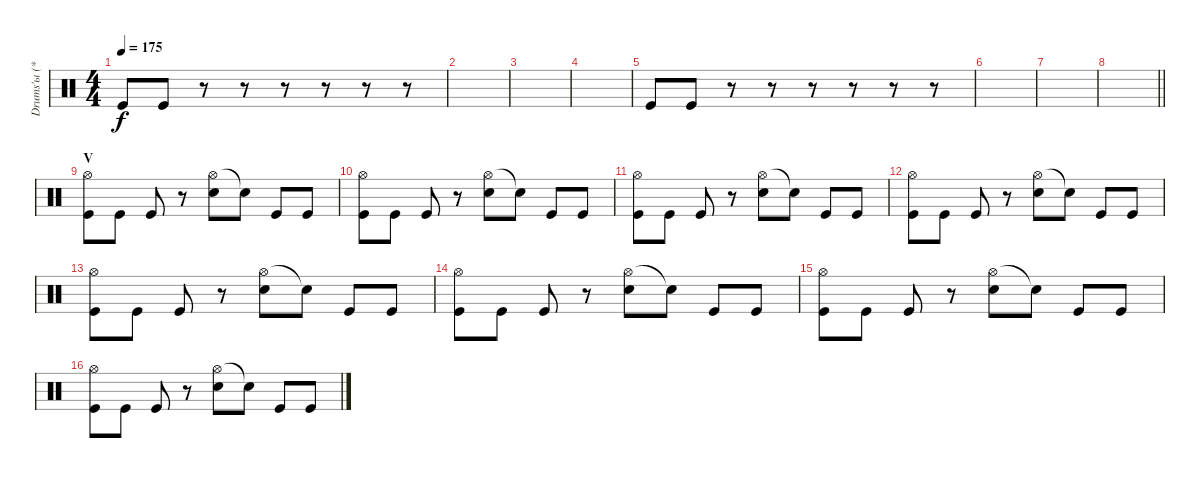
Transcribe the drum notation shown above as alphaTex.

\track ("Drums'ы (***)" "Drums'ы (*") {instrument percussion}
\staff {score}
\articulation defaults
\ts (4 4)
\tempo 175
\clef neutral
\ks c "Kick (hit)".8{dy f} "Kick (hit)".8
r.8 r.8 r.8 r.8 r.8 r.8 |
|
|
|
"Kick (hit)".8 "Kick (hit)".8 r.8 r.8 r.8 r.8 r.8 r.8 |
|
|
\barLineRight lightlight
|
\section ("" "V")
("Hi-Hat (open)" "Kick (hit)").8 "Kick (hit)".8 "Kick (hit)".8 r.8 ("Hi-Hat (open)" "Electric Snare (hit)").8 "Snare (hit)"{t}.8 "Kick (hit)".8 "Kick (hit)".8 |
("Hi-Hat (open)" "Kick (hit)").8 "Kick (hit)".8 "Kick (hit)".8 r.8 ("Hi-Hat (open)" "Electric Snare (hit)").8 "Snare (hit)"{t}.8 "Kick (hit)".8 "Kick (hit)".8 |
("Hi-Hat (open)" "Kick (hit)").8 "Kick (hit)".8 "Kick (hit)".8 r.8 ("Hi-Hat (open)" "Electric Snare (hit)").8 "Snare (hit)"{t}.8 "Kick (hit)".8 "Kick (hit)".8 |
("Hi-Hat (open)" "Kick (hit)").8 "Kick (hit)".8 "Kick (hit)".8 r.8 ("Hi-Hat (open)" "Electric Snare (hit)").8 "Snare (hit)"{t}.8 "Kick (hit)".8 "Kick (hit)".8 |
("Hi-Hat (open)" "Kick (hit)").8 "Kick (hit)".8 "Kick (hit)".8 r.8 ("Hi-Hat (open)" "Electric Snare (hit)").8 "Snare (hit)"{t}.8 "Kick (hit)".8 "Kick (hit)".8 |
("Hi-Hat (open)" "Kick (hit)").8 "Kick (hit)".8 "Kick (hit)".8 r.8 ("Hi-Hat (open)" "Electric Snare (hit)").8 "Snare (hit)"{t}.8 "Kick (hit)".8 "Kick (hit)".8 |
("Hi-Hat (open)" "Kick (hit)").8 "Kick (hit)".8 "Kick (hit)".8 r.8 ("Hi-Hat (open)" "Electric Snare (hit)").8 "Snare (hit)"{t}.8 "Kick (hit)".8 "Kick (hit)".8 |
("Hi-Hat (open)" "Kick (hit)").8 "Kick (hit)".8 "Kick (hit)".8 r.8 ("Hi-Hat (open)" "Electric Snare (hit)").8 "Snare (hit)"{t}.8 "Kick (hit)".8 "Kick (hit)".8
